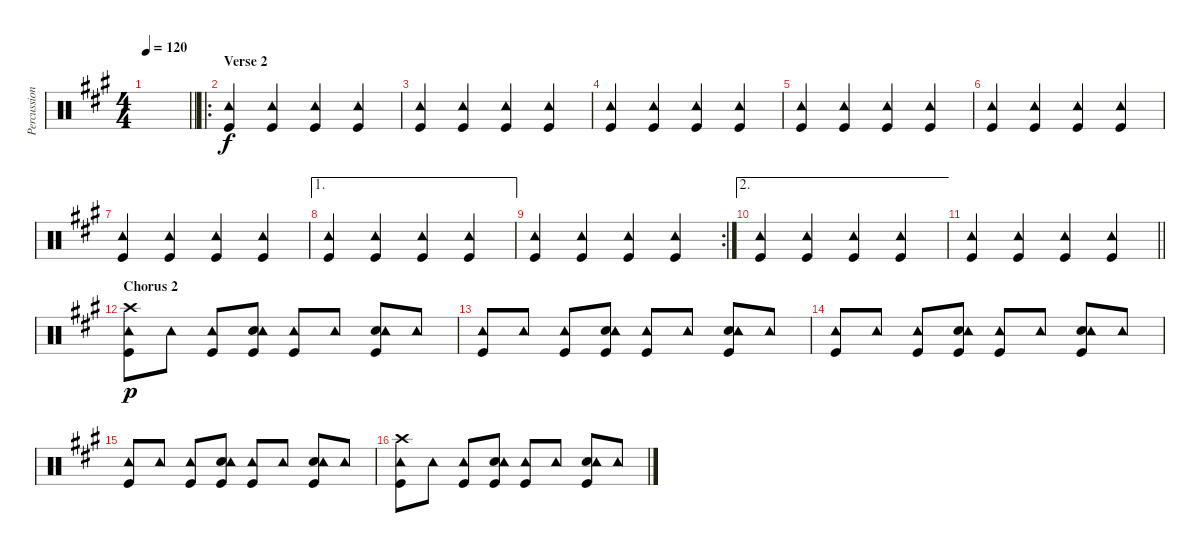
\track ("Percussion" "Percussion") {instrument percussion}
\staff {score}
\articulation defaults
\ts (4 4)
\tempo 120
\clef neutral
\barLineRight lightlight
\ks a
|
\ro
\section ("" "Verse 2")
("Kick (hit)" "Tambourine (hit)").4 ("Kick (hit)" "Tambourine (hit)").4 ("Kick (hit)" "Tambourine (hit)").4 ("Kick (hit)" "Tambourine (hit)").4 |
("Kick (hit)" "Tambourine (hit)").4 ("Kick (hit)" "Tambourine (hit)").4 ("Kick (hit)" "Tambourine (hit)").4 ("Kick (hit)" "Tambourine (hit)").4 |
("Kick (hit)" "Tambourine (hit)").4 ("Kick (hit)" "Tambourine (hit)").4 ("Kick (hit)" "Tambourine (hit)").4 ("Kick (hit)" "Tambourine (hit)").4 |
("Kick (hit)" "Tambourine (hit)").4 ("Kick (hit)" "Tambourine (hit)").4 ("Kick (hit)" "Tambourine (hit)").4 ("Kick (hit)" "Tambourine (hit)").4 |
("Kick (hit)" "Tambourine (hit)").4 ("Kick (hit)" "Tambourine (hit)").4 ("Kick (hit)" "Tambourine (hit)").4 ("Kick (hit)" "Tambourine (hit)").4 |
("Kick (hit)" "Tambourine (hit)").4 ("Kick (hit)" "Tambourine (hit)").4 ("Kick (hit)" "Tambourine (hit)").4 ("Kick (hit)" "Tambourine (hit)").4 |
\ae 1
("Kick (hit)" "Tambourine (hit)").4 ("Kick (hit)" "Tambourine (hit)").4 ("Kick (hit)" "Tambourine (hit)").4 ("Kick (hit)" "Tambourine (hit)").4 |
\rc 2
("Kick (hit)" "Tambourine (hit)").4 ("Kick (hit)" "Tambourine (hit)").4 ("Kick (hit)" "Tambourine (hit)").4 ("Kick (hit)" "Tambourine (hit)").4 |
\ae 2
("Kick (hit)" "Tambourine (hit)").4 ("Kick (hit)" "Tambourine (hit)").4 ("Kick (hit)" "Tambourine (hit)").4 ("Kick (hit)" "Tambourine (hit)").4 |
\barLineRight lightlight
("Kick (hit)" "Tambourine (hit)").4 ("Kick (hit)" "Tambourine (hit)").4 ("Kick (hit)" "Tambourine (hit)").4 ("Kick (hit)" "Tambourine (hit)").4 |
\section ("" "Chorus 2")
("Kick (hit)" "Crash high (hit)" "Tambourine (hit)").8{dy p} "Tambourine (hit)".8 ("Kick (hit)" "Tambourine (hit)").8 ("Kick (hit)" "Electric Snare (hit)" "Tambourine (hit)").8 ("Kick (hit)" "Tambourine (hit)").8 "Tambourine (hit)".8 ("Kick (hit)" "Electric Snare (hit)" "Tambourine (hit)").8 "Tambourine (hit)".8 |
("Kick (hit)" "Tambourine (hit)").8 "Tambourine (hit)".8 ("Kick (hit)" "Tambourine (hit)").8 ("Kick (hit)" "Electric Snare (hit)" "Tambourine (hit)").8 ("Kick (hit)" "Tambourine (hit)").8 "Tambourine (hit)".8 ("Kick (hit)" "Electric Snare (hit)" "Tambourine (hit)").8 "Tambourine (hit)".8 |
("Kick (hit)" "Tambourine (hit)").8 "Tambourine (hit)".8 ("Kick (hit)" "Tambourine (hit)").8 ("Kick (hit)" "Electric Snare (hit)" "Tambourine (hit)").8 ("Kick (hit)" "Tambourine (hit)").8 "Tambourine (hit)".8 ("Kick (hit)" "Electric Snare (hit)" "Tambourine (hit)").8 "Tambourine (hit)".8 |
("Kick (hit)" "Tambourine (hit)").8 "Tambourine (hit)".8 ("Kick (hit)" "Tambourine (hit)").8 ("Kick (hit)" "Electric Snare (hit)" "Tambourine (hit)").8 ("Kick (hit)" "Tambourine (hit)").8 "Tambourine (hit)".8 ("Kick (hit)" "Electric Snare (hit)" "Tambourine (hit)").8 "Tambourine (hit)".8 |
("Kick (hit)" "Crash high (hit)" "Tambourine (hit)").8 "Tambourine (hit)".8 ("Kick (hit)" "Tambourine (hit)").8 ("Kick (hit)" "Electric Snare (hit)" "Tambourine (hit)").8 ("Kick (hit)" "Tambourine (hit)").8 "Tambourine (hit)".8 ("Kick (hit)" "Electric Snare (hit)" "Tambourine (hit)").8 "Tambourine (hit)".8
